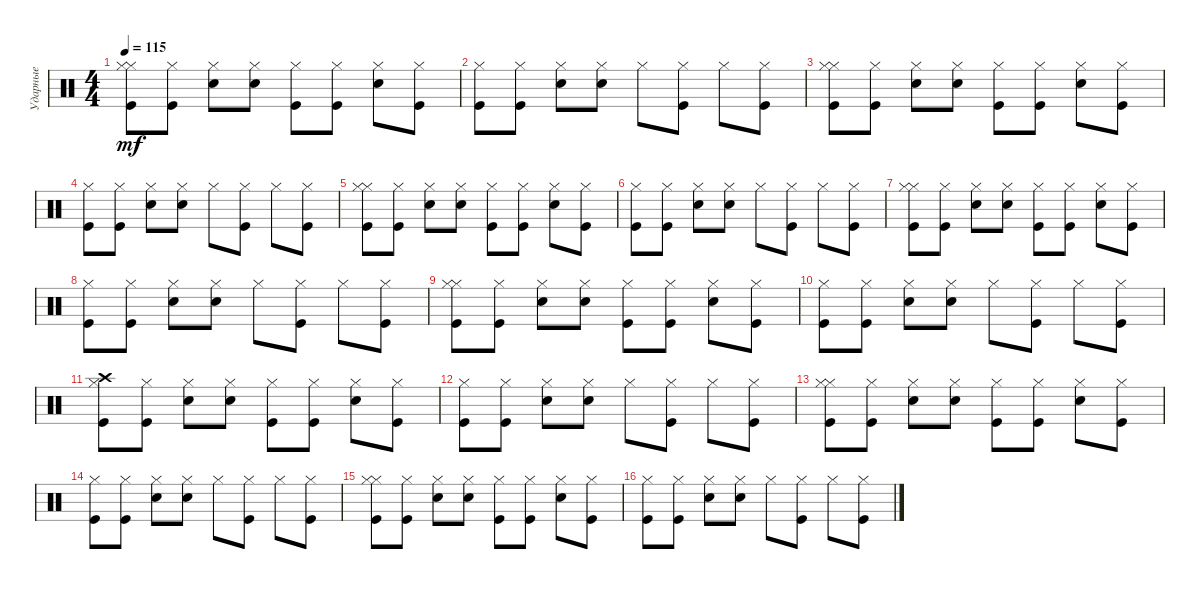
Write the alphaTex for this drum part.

\track ("Ударные" "Ударные") {instrument percussion}
\staff {score}
\articulation defaults
\ts (4 4)
\tempo 115
\clef neutral
\ks c
("Hi-Hat (closed)" "Kick (hit)" "Hi-Hat (closed)").8{dy mf} ("Hi-Hat (closed)" "Kick (hit)").8 ("Snare (hit) 2" "Hi-Hat (closed)").8 ("Snare (hit) 2" "Hi-Hat (closed)").8 ("Hi-Hat (closed)" "Kick (hit)").8 ("Hi-Hat (closed)" "Kick (hit)").8 ("Hi-Hat (closed)" "Snare (hit) 2").8 ("Hi-Hat (closed)" "Kick (hit)").8 |
("Hi-Hat (closed)" "Kick (hit)").8 ("Hi-Hat (closed)" "Kick (hit)").8 ("Snare (hit) 2" "Hi-Hat (closed)").8 ("Snare (hit) 2" "Hi-Hat (closed)").8 "Hi-Hat (closed)".8 ("Hi-Hat (closed)" "Kick (hit)").8 "Hi-Hat (closed)".8 ("Hi-Hat (closed)" "Kick (hit)").8 |
("Hi-Hat (closed)" "Kick (hit)" "Hi-Hat (closed)").8 ("Hi-Hat (closed)" "Kick (hit)").8 ("Snare (hit) 2" "Hi-Hat (closed)").8 ("Snare (hit) 2" "Hi-Hat (closed)").8 ("Hi-Hat (closed)" "Kick (hit)").8 ("Hi-Hat (closed)" "Kick (hit)").8 ("Hi-Hat (closed)" "Snare (hit) 2").8 ("Hi-Hat (closed)" "Kick (hit)").8 |
("Hi-Hat (closed)" "Kick (hit)").8 ("Hi-Hat (closed)" "Kick (hit)").8 ("Snare (hit) 2" "Hi-Hat (closed)").8 ("Snare (hit) 2" "Hi-Hat (closed)").8 "Hi-Hat (closed)".8 ("Hi-Hat (closed)" "Kick (hit)").8 "Hi-Hat (closed)".8 ("Hi-Hat (closed)" "Kick (hit)").8 |
("Hi-Hat (closed)" "Kick (hit)" "Hi-Hat (closed)").8 ("Hi-Hat (closed)" "Kick (hit)").8 ("Snare (hit) 2" "Hi-Hat (closed)").8 ("Snare (hit) 2" "Hi-Hat (closed)").8 ("Hi-Hat (closed)" "Kick (hit)").8 ("Hi-Hat (closed)" "Kick (hit)").8 ("Hi-Hat (closed)" "Snare (hit) 2").8 ("Hi-Hat (closed)" "Kick (hit)").8 |
("Hi-Hat (closed)" "Kick (hit)").8 ("Hi-Hat (closed)" "Kick (hit)").8 ("Snare (hit) 2" "Hi-Hat (closed)").8 ("Snare (hit) 2" "Hi-Hat (closed)").8 "Hi-Hat (closed)".8 ("Hi-Hat (closed)" "Kick (hit)").8 "Hi-Hat (closed)".8 ("Hi-Hat (closed)" "Kick (hit)").8 |
("Hi-Hat (closed)" "Kick (hit)" "Hi-Hat (closed)").8 ("Hi-Hat (closed)" "Kick (hit)").8 ("Snare (hit) 2" "Hi-Hat (closed)").8 ("Snare (hit) 2" "Hi-Hat (closed)").8 ("Hi-Hat (closed)" "Kick (hit)").8 ("Hi-Hat (closed)" "Kick (hit)").8 ("Hi-Hat (closed)" "Snare (hit) 2").8 ("Hi-Hat (closed)" "Kick (hit)").8 |
("Hi-Hat (closed)" "Kick (hit)").8 ("Hi-Hat (closed)" "Kick (hit)").8 ("Snare (hit) 2" "Hi-Hat (closed)").8 ("Snare (hit) 2" "Hi-Hat (closed)").8 "Hi-Hat (closed)".8 ("Hi-Hat (closed)" "Kick (hit)").8 "Hi-Hat (closed)".8 ("Hi-Hat (closed)" "Kick (hit)").8 |
("Hi-Hat (closed)" "Kick (hit)" "Hi-Hat (closed)").8 ("Hi-Hat (closed)" "Kick (hit)").8 ("Snare (hit) 2" "Hi-Hat (closed)").8 ("Snare (hit) 2" "Hi-Hat (closed)").8 ("Hi-Hat (closed)" "Kick (hit)").8 ("Hi-Hat (closed)" "Kick (hit)").8 ("Hi-Hat (closed)" "Snare (hit) 2").8 ("Hi-Hat (closed)" "Kick (hit)").8 |
("Hi-Hat (closed)" "Kick (hit)").8 ("Hi-Hat (closed)" "Kick (hit)").8 ("Snare (hit) 2" "Hi-Hat (closed)").8 ("Snare (hit) 2" "Hi-Hat (closed)").8 "Hi-Hat (closed)".8 ("Hi-Hat (closed)" "Kick (hit)").8 "Hi-Hat (closed)".8 ("Hi-Hat (closed)" "Kick (hit)").8 |
("Crash high (hit)" "Kick (hit)" "Hi-Hat (closed)").8 ("Hi-Hat (closed)" "Kick (hit)").8 ("Snare (hit) 2" "Hi-Hat (closed)").8 ("Snare (hit) 2" "Hi-Hat (closed)").8 ("Hi-Hat (closed)" "Kick (hit)").8 ("Hi-Hat (closed)" "Kick (hit)").8 ("Hi-Hat (closed)" "Snare (hit) 2").8 ("Hi-Hat (closed)" "Kick (hit)").8 |
("Hi-Hat (closed)" "Kick (hit)").8 ("Hi-Hat (closed)" "Kick (hit)").8 ("Snare (hit) 2" "Hi-Hat (closed)").8 ("Snare (hit) 2" "Hi-Hat (closed)").8 "Hi-Hat (closed)".8 ("Hi-Hat (closed)" "Kick (hit)").8 "Hi-Hat (closed)".8 ("Hi-Hat (closed)" "Kick (hit)").8 |
("Hi-Hat (closed)" "Kick (hit)" "Hi-Hat (closed)").8 ("Hi-Hat (closed)" "Kick (hit)").8 ("Snare (hit) 2" "Hi-Hat (closed)").8 ("Snare (hit) 2" "Hi-Hat (closed)").8 ("Hi-Hat (closed)" "Kick (hit)").8 ("Hi-Hat (closed)" "Kick (hit)").8 ("Hi-Hat (closed)" "Snare (hit) 2").8 ("Hi-Hat (closed)" "Kick (hit)").8 |
("Hi-Hat (closed)" "Kick (hit)").8 ("Hi-Hat (closed)" "Kick (hit)").8 ("Snare (hit) 2" "Hi-Hat (closed)").8 ("Snare (hit) 2" "Hi-Hat (closed)").8 "Hi-Hat (closed)".8 ("Hi-Hat (closed)" "Kick (hit)").8 "Hi-Hat (closed)".8 ("Hi-Hat (closed)" "Kick (hit)").8 |
("Hi-Hat (closed)" "Kick (hit)" "Hi-Hat (closed)").8 ("Hi-Hat (closed)" "Kick (hit)").8 ("Snare (hit) 2" "Hi-Hat (closed)").8 ("Snare (hit) 2" "Hi-Hat (closed)").8 ("Hi-Hat (closed)" "Kick (hit)").8 ("Hi-Hat (closed)" "Kick (hit)").8 ("Hi-Hat (closed)" "Snare (hit) 2").8 ("Hi-Hat (closed)" "Kick (hit)").8 |
("Hi-Hat (closed)" "Kick (hit)").8 ("Hi-Hat (closed)" "Kick (hit)").8 ("Snare (hit) 2" "Hi-Hat (closed)").8 ("Snare (hit) 2" "Hi-Hat (closed)").8 "Hi-Hat (closed)".8 ("Hi-Hat (closed)" "Kick (hit)").8 "Hi-Hat (closed)".8 ("Hi-Hat (closed)" "Kick (hit)").8
